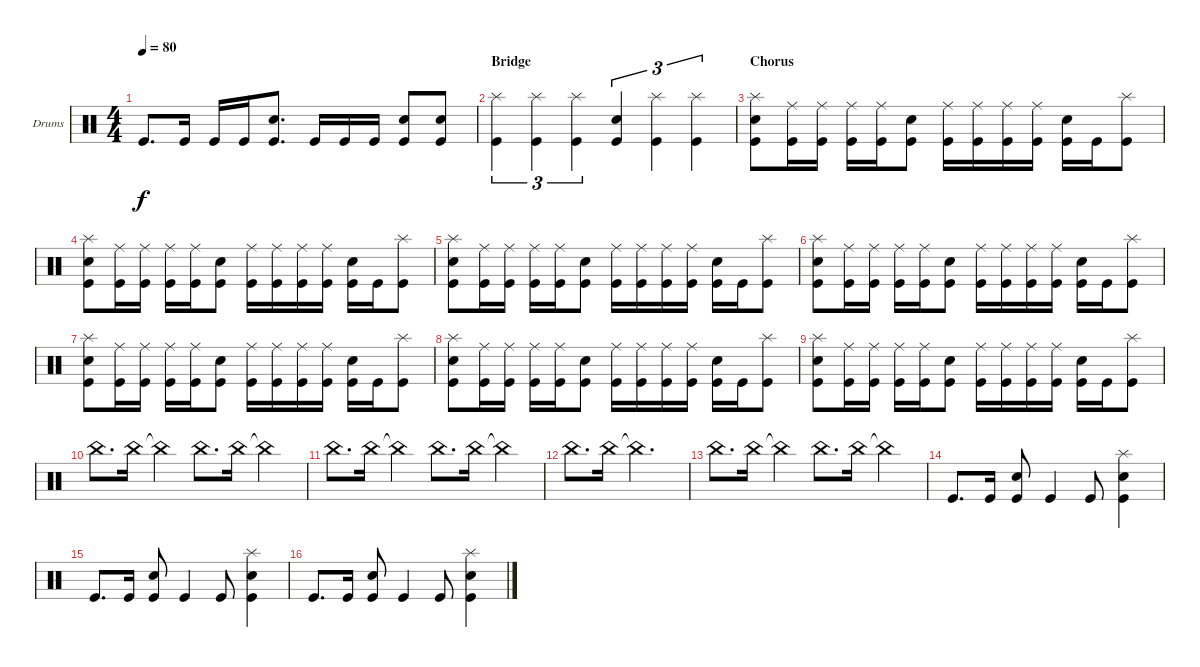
\defaultSystemsLayout 4
\bracketExtendMode groupsimilarinstruments
\firstSystemTrackNameOrientation horizontal
\otherSystemsTrackNameOrientation horizontal
\track ("Jimmy DeGrasso" "Drums") {instrument percussion}
\staff {score}
\articulation defaults
\ts (4 4)
\tempo 80
\clef neutral
\scale
0.333333
\ks c "Kick (hit)".8{d dy f} "Kick (hit)".16 "Kick (hit)".16 "Kick (hit)".16
("Kick (hit)" "Snare (hit) 2").8{d} "Kick (hit)".16 "Kick (hit)".16 "Kick (hit)".16 ("Kick (hit)" "Snare (hit) 2").8 ("Snare (hit) 2" "Kick (hit)").8 |
\section ("" "Bridge")
\scale
0.333333 ("Splash (hit)" "Kick (hit)").4{tu (3 2)} ("Kick (hit)" "Splash (hit)").4{tu (3 2)} ("Splash (hit)" "Kick (hit)").4{tu (3 2)} ("Kick (hit)" "Snare (hit) 2").4{tu (3 2)} ("Splash (hit)" "Kick (hit)").4{tu (3 2)} ("Splash (hit)" "Kick (hit)").4{tu (3 2)} |
\section ("" "Chorus")
\scale
0.333333 ("Snare (hit) 2" "Kick (hit)" "Splash (hit)").8 ("Kick (hit)" "Ride (middle)").16 ("Kick (hit)" "Ride (middle)").16 ("Kick (hit)" "Ride (middle)").16 ("Kick (hit)" "Ride (middle)").16 ("Kick (hit)" "Snare (hit) 2").8 ("Kick (hit)" "Ride (middle)").16 ("Kick (hit)" "Ride (middle)").16 ("Kick (hit)" "Ride (middle)").16 ("Kick (hit)" "Ride (middle)").16 ("Kick (hit)" "Snare (hit) 2").16 "Kick (hit)".16 ("Kick (hit)" "Splash (hit)").8 |
\scale
0.333333 ("Snare (hit) 2" "Kick (hit)" "Splash (hit)").8 ("Kick (hit)" "Ride (middle)").16 ("Kick (hit)" "Ride (middle)").16 ("Kick (hit)" "Ride (middle)").16 ("Kick (hit)" "Ride (middle)").16 ("Kick (hit)" "Snare (hit) 2").8 ("Kick (hit)" "Ride (middle)").16 ("Kick (hit)" "Ride (middle)").16 ("Kick (hit)" "Ride (middle)").16 ("Kick (hit)" "Ride (middle)").16 ("Kick (hit)" "Snare (hit) 2").16 "Kick (hit)".16 ("Kick (hit)" "Splash (hit)").8 |
\scale
0.333333 ("Snare (hit) 2" "Kick (hit)" "Splash (hit)").8 ("Kick (hit)" "Ride (middle)").16 ("Kick (hit)" "Ride (middle)").16 ("Kick (hit)" "Ride (middle)").16 ("Kick (hit)" "Ride (middle)").16 ("Kick (hit)" "Snare (hit) 2").8 ("Kick (hit)" "Ride (middle)").16 ("Kick (hit)" "Ride (middle)").16 ("Kick (hit)" "Ride (middle)").16 ("Kick (hit)" "Ride (middle)").16 ("Kick (hit)" "Snare (hit) 2").16 "Kick (hit)".16 ("Kick (hit)" "Splash (hit)").8 |
\scale
0.333333 ("Snare (hit) 2" "Kick (hit)" "Splash (hit)").8 ("Kick (hit)" "Ride (middle)").16 ("Kick (hit)" "Ride (middle)").16 ("Kick (hit)" "Ride (middle)").16 ("Kick (hit)" "Ride (middle)").16 ("Kick (hit)" "Snare (hit) 2").8 ("Kick (hit)" "Ride (middle)").16 ("Kick (hit)" "Ride (middle)").16 ("Kick (hit)" "Ride (middle)").16 ("Kick (hit)" "Ride (middle)").16 ("Kick (hit)" "Snare (hit) 2").16 "Kick (hit)".16 ("Kick (hit)" "Splash (hit)").8 |
\scale
0.333333 ("Snare (hit) 2" "Kick (hit)" "Splash (hit)").8 ("Kick (hit)" "Ride (middle)").16 ("Kick (hit)" "Ride (middle)").16 ("Kick (hit)" "Ride (middle)").16 ("Kick (hit)" "Ride (middle)").16 ("Kick (hit)" "Snare (hit) 2").8 ("Kick (hit)" "Ride (middle)").16 ("Kick (hit)" "Ride (middle)").16 ("Kick (hit)" "Ride (middle)").16 ("Kick (hit)" "Ride (middle)").16 ("Kick (hit)" "Snare (hit) 2").16 "Kick (hit)".16 ("Kick (hit)" "Splash (hit)").8 |
\scale
0.333333 ("Snare (hit) 2" "Kick (hit)" "Splash (hit)").8 ("Kick (hit)" "Ride (middle)").16 ("Kick (hit)" "Ride (middle)").16 ("Kick (hit)" "Ride (middle)").16 ("Kick (hit)" "Ride (middle)").16 ("Kick (hit)" "Snare (hit) 2").8 ("Kick (hit)" "Ride (middle)").16 ("Kick (hit)" "Ride (middle)").16 ("Kick (hit)" "Ride (middle)").16 ("Kick (hit)" "Ride (middle)").16 ("Kick (hit)" "Snare (hit) 2").16 "Kick (hit)".16 ("Kick (hit)" "Splash (hit)").8 |
\scale
0.333333 ("Snare (hit) 2" "Kick (hit)" "Splash (hit)").8 ("Kick (hit)" "Ride (middle)").16 ("Kick (hit)" "Ride (middle)").16 ("Kick (hit)" "Ride (middle)").16 ("Kick (hit)" "Ride (middle)").16 ("Kick (hit)" "Snare (hit) 2").8 ("Kick (hit)" "Ride (middle)").16 ("Kick (hit)" "Ride (middle)").16 ("Kick (hit)" "Ride (middle)").16 ("Kick (hit)" "Ride (middle)").16 ("Kick (hit)" "Snare (hit) 2").16 "Kick (hit)".16 ("Kick (hit)" "Splash (hit)").8 |
\scale
0.333333 "China (hit)".8{d} "China (hit)".16 "China (hit)"{t}.4 "China (hit)".8{d} "China (hit)".16 "China (hit)"{t}.4 |
\scale
0.333333 "China (hit)".8{d} "China (hit)".16 "China (hit)"{t}.4 "China (hit)".8{d} "China (hit)".16 "China (hit)"{t}.4 |
\scale
0.333333 "China (hit)".8{d} "China (hit)".16 "China (hit)"{t}.2{d} |
\scale
0.333333 "China (hit)".8{d} "China (hit)".16 "China (hit)"{t}.4 "China (hit)".8{d} "China (hit)".16 "China (hit)"{t}.4 |
\scale
0.333333 "Kick (hit)".8{d} "Kick (hit)".16 ("Kick (hit)" "Snare (hit) 2").8 "Kick (hit)".4 "Kick (hit)".8 ("Kick (hit)" "Snare (hit) 2" "Splash (hit)").4 |
\scale
0.333333 "Kick (hit)".8{d} "Kick (hit)".16 ("Kick (hit)" "Snare (hit) 2").8 "Kick (hit)".4 "Kick (hit)".8 ("Kick (hit)" "Snare (hit) 2" "Splash (hit)").4 |
\scale
0.333333 "Kick (hit)".8{d} "Kick (hit)".16 ("Kick (hit)" "Snare (hit) 2").8 "Kick (hit)".4 "Kick (hit)".8 ("Kick (hit)" "Snare (hit) 2" "Splash (hit)").4
